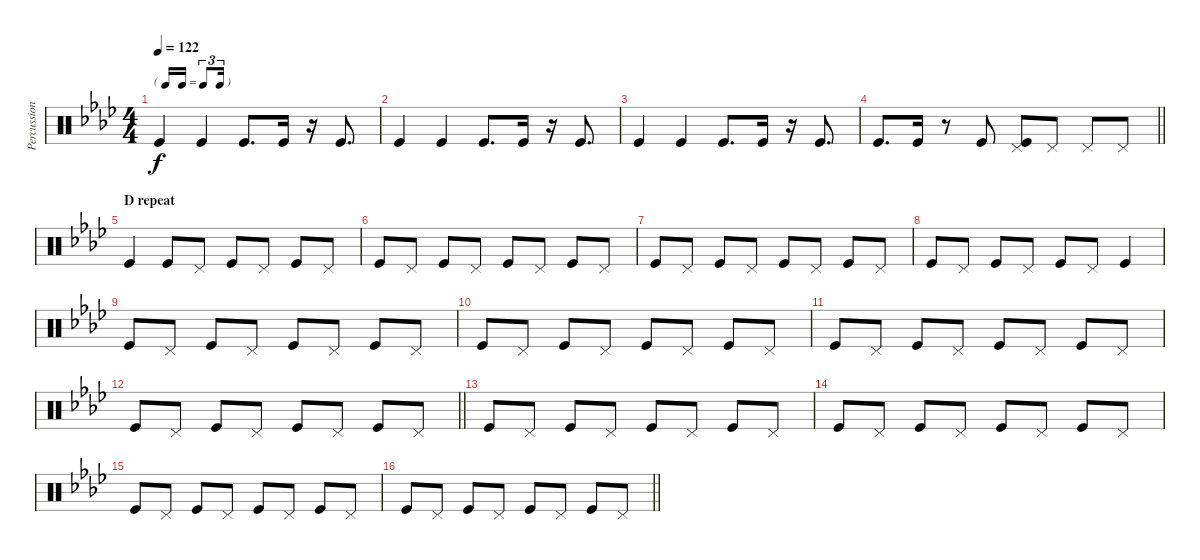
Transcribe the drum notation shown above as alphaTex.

\track ("Percussion Foot" "Percussion") {instrument percussion}
\staff {score}
\articulation defaults
\ts (4 4)
\tf triplet16th
\tempo 122
\clef neutral
\ks ab "Kick (hit)".4{dy f} "Kick (hit)".4 "Kick (hit)".8{d} "Kick (hit)".16
r.16 "Kick (hit)".8{d} |
"Kick (hit)".4 "Kick (hit)".4 "Kick (hit)".8{d} "Kick (hit)".16 r.16 "Kick (hit)".8{d} |
"Kick (hit)".4 "Kick (hit)".4 "Kick (hit)".8{d} "Kick (hit)".16 r.16 "Kick (hit)".8{d} |
\barLineRight lightlight "Kick (hit)".8{d} "Kick (hit)".16
r.8 "Kick (hit)".8 ("Kick (hit)" "Pedal Hi-Hat (hit)").8 "Pedal Hi-Hat (hit)".8 "Pedal Hi-Hat (hit)".8 "Pedal Hi-Hat (hit)".8 |
\section ("" "D repeat")
"Kick (hit)".4 "Kick (hit)".8 "Pedal Hi-Hat (hit)".8 "Kick (hit)".8 "Pedal Hi-Hat (hit)".8 "Kick (hit)".8 "Pedal Hi-Hat (hit)".8 |
"Kick (hit)".8 "Pedal Hi-Hat (hit)".8 "Kick (hit)".8 "Pedal Hi-Hat (hit)".8 "Kick (hit)".8 "Pedal Hi-Hat (hit)".8 "Kick (hit)".8 "Pedal Hi-Hat (hit)".8 |
"Kick (hit)".8 "Pedal Hi-Hat (hit)".8 "Kick (hit)".8 "Pedal Hi-Hat (hit)".8 "Kick (hit)".8 "Pedal Hi-Hat (hit)".8 "Kick (hit)".8 "Pedal Hi-Hat (hit)".8 |
"Kick (hit)".8 "Pedal Hi-Hat (hit)".8 "Kick (hit)".8 "Pedal Hi-Hat (hit)".8 "Kick (hit)".8 "Pedal Hi-Hat (hit)".8 "Kick (hit)".4 |
"Kick (hit)".8 "Pedal Hi-Hat (hit)".8 "Kick (hit)".8 "Pedal Hi-Hat (hit)".8 "Kick (hit)".8 "Pedal Hi-Hat (hit)".8 "Kick (hit)".8 "Pedal Hi-Hat (hit)".8 |
"Kick (hit)".8 "Pedal Hi-Hat (hit)".8 "Kick (hit)".8 "Pedal Hi-Hat (hit)".8 "Kick (hit)".8 "Pedal Hi-Hat (hit)".8 "Kick (hit)".8 "Pedal Hi-Hat (hit)".8 |
"Kick (hit)".8 "Pedal Hi-Hat (hit)".8 "Kick (hit)".8 "Pedal Hi-Hat (hit)".8 "Kick (hit)".8 "Pedal Hi-Hat (hit)".8 "Kick (hit)".8 "Pedal Hi-Hat (hit)".8 |
\barLineRight lightlight "Kick (hit)".8 "Pedal Hi-Hat (hit)".8 "Kick (hit)".8 "Pedal Hi-Hat (hit)".8 "Kick (hit)".8 "Pedal Hi-Hat (hit)".8 "Kick (hit)".8 "Pedal Hi-Hat (hit)".8
|
"Kick (hit)".8 "Pedal Hi-Hat (hit)".8 "Kick (hit)".8 "Pedal Hi-Hat (hit)".8 "Kick (hit)".8 "Pedal Hi-Hat (hit)".8 "Kick (hit)".8 "Pedal Hi-Hat (hit)".8 |
"Kick (hit)".8 "Pedal Hi-Hat (hit)".8 "Kick (hit)".8 "Pedal Hi-Hat (hit)".8 "Kick (hit)".8 "Pedal Hi-Hat (hit)".8 "Kick (hit)".8 "Pedal Hi-Hat (hit)".8 |
"Kick (hit)".8 "Pedal Hi-Hat (hit)".8 "Kick (hit)".8 "Pedal Hi-Hat (hit)".8 "Kick (hit)".8 "Pedal Hi-Hat (hit)".8 "Kick (hit)".8 "Pedal Hi-Hat (hit)".8 |
\barLineRight lightlight "Kick (hit)".8 "Pedal Hi-Hat (hit)".8 "Kick (hit)".8 "Pedal Hi-Hat (hit)".8 "Kick (hit)".8 "Pedal Hi-Hat (hit)".8 "Kick (hit)".8 "Pedal Hi-Hat (hit)".8
